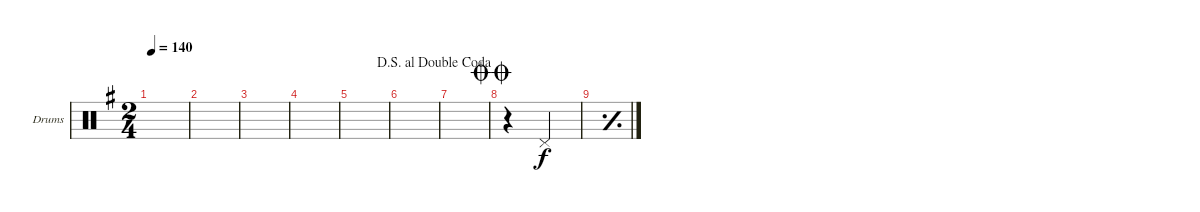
\defaultSystemsLayout 4
\bracketExtendMode groupsimilarinstruments
\firstSystemTrackNameOrientation horizontal
\otherSystemsTrackNameOrientation horizontal
\track ("Drumkit" "Drums") {instrument percussion}
\staff {score}
\articulation defaults
\ts (2 4)
\tempo 140
\clef neutral
\scale
0.333333
\ks g
|
\scale
0.333333 |
\scale
0.333333 |
\scale
0.333333 |
\scale
0.333333 |
\scale
0.333333 |
\jump dalsegnoaldoublecoda
\scale
0.333333 |
\jump doublecoda
\scale
0.333333 r.4 "Pedal Hi-Hat (hit)".4 |
\simile simple
\scale
0.333333 |
\scale
0.333333 |
\scale
0.333333 |
\scale
0.333333 |
\scale
0.333333 |
\scale
0.333333 |
\scale
0.333333 |
\scale
0.333333
